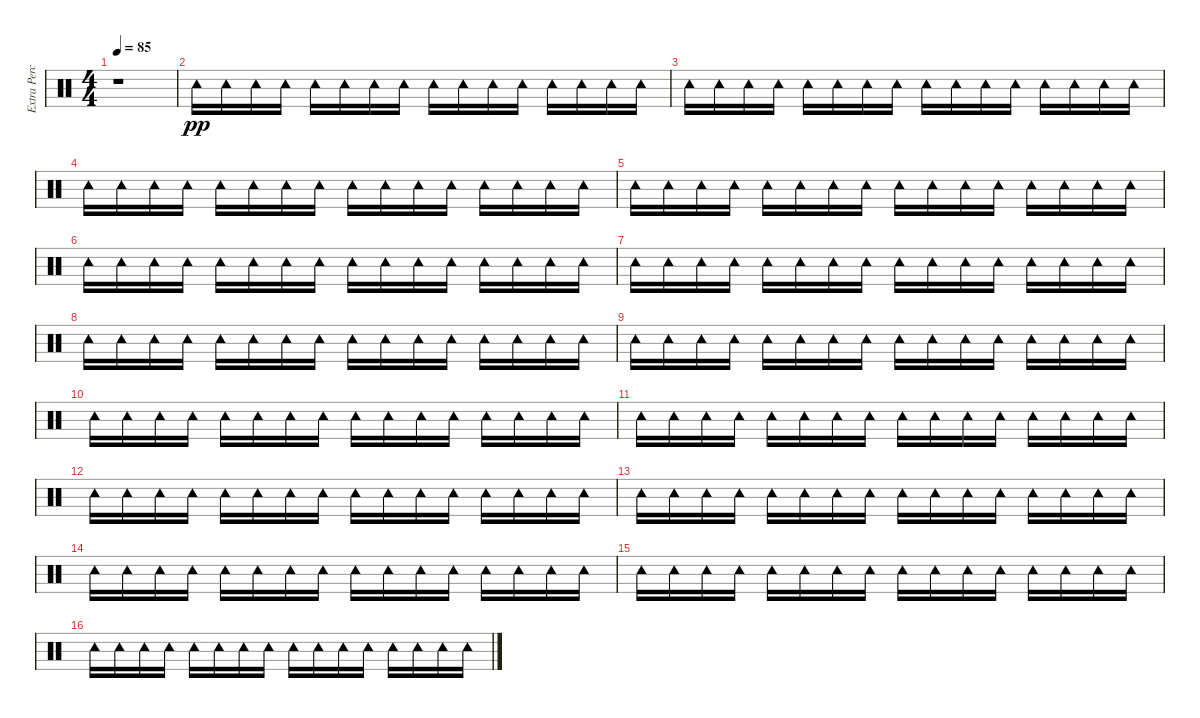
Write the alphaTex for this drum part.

\track ("Extra Percussion" "Extra Perc") {instrument percussion}
\staff {score}
\articulation defaults
\ts (4 4)
\tempo 85
\clef neutral
\ks c
r.1{dy pp} |
"Tambourine (hit)".16 "Tambourine (hit)".16 "Tambourine (hit)".16 "Tambourine (hit)".16 "Tambourine (hit)".16 "Tambourine (hit)".16 "Tambourine (hit)".16 "Tambourine (hit)".16 "Tambourine (hit)".16 "Tambourine (hit)".16 "Tambourine (hit)".16 "Tambourine (hit)".16 "Tambourine (hit)".16 "Tambourine (hit)".16 "Tambourine (hit)".16 "Tambourine (hit)".16 |
"Tambourine (hit)".16 "Tambourine (hit)".16 "Tambourine (hit)".16 "Tambourine (hit)".16 "Tambourine (hit)".16 "Tambourine (hit)".16 "Tambourine (hit)".16 "Tambourine (hit)".16 "Tambourine (hit)".16 "Tambourine (hit)".16 "Tambourine (hit)".16 "Tambourine (hit)".16 "Tambourine (hit)".16 "Tambourine (hit)".16 "Tambourine (hit)".16 "Tambourine (hit)".16 |
"Tambourine (hit)".16 "Tambourine (hit)".16 "Tambourine (hit)".16 "Tambourine (hit)".16 "Tambourine (hit)".16 "Tambourine (hit)".16 "Tambourine (hit)".16 "Tambourine (hit)".16 "Tambourine (hit)".16 "Tambourine (hit)".16 "Tambourine (hit)".16 "Tambourine (hit)".16 "Tambourine (hit)".16 "Tambourine (hit)".16 "Tambourine (hit)".16 "Tambourine (hit)".16 |
"Tambourine (hit)".16 "Tambourine (hit)".16 "Tambourine (hit)".16 "Tambourine (hit)".16 "Tambourine (hit)".16 "Tambourine (hit)".16 "Tambourine (hit)".16 "Tambourine (hit)".16 "Tambourine (hit)".16 "Tambourine (hit)".16 "Tambourine (hit)".16 "Tambourine (hit)".16 "Tambourine (hit)".16 "Tambourine (hit)".16 "Tambourine (hit)".16 "Tambourine (hit)".16 |
"Tambourine (hit)".16 "Tambourine (hit)".16 "Tambourine (hit)".16 "Tambourine (hit)".16 "Tambourine (hit)".16 "Tambourine (hit)".16 "Tambourine (hit)".16 "Tambourine (hit)".16 "Tambourine (hit)".16 "Tambourine (hit)".16 "Tambourine (hit)".16 "Tambourine (hit)".16 "Tambourine (hit)".16 "Tambourine (hit)".16 "Tambourine (hit)".16 "Tambourine (hit)".16 |
"Tambourine (hit)".16 "Tambourine (hit)".16 "Tambourine (hit)".16 "Tambourine (hit)".16 "Tambourine (hit)".16 "Tambourine (hit)".16 "Tambourine (hit)".16 "Tambourine (hit)".16 "Tambourine (hit)".16 "Tambourine (hit)".16 "Tambourine (hit)".16 "Tambourine (hit)".16 "Tambourine (hit)".16 "Tambourine (hit)".16 "Tambourine (hit)".16 "Tambourine (hit)".16 |
"Tambourine (hit)".16 "Tambourine (hit)".16 "Tambourine (hit)".16 "Tambourine (hit)".16 "Tambourine (hit)".16 "Tambourine (hit)".16 "Tambourine (hit)".16 "Tambourine (hit)".16 "Tambourine (hit)".16 "Tambourine (hit)".16 "Tambourine (hit)".16 "Tambourine (hit)".16 "Tambourine (hit)".16 "Tambourine (hit)".16 "Tambourine (hit)".16 "Tambourine (hit)".16 |
"Tambourine (hit)".16 "Tambourine (hit)".16 "Tambourine (hit)".16 "Tambourine (hit)".16 "Tambourine (hit)".16 "Tambourine (hit)".16 "Tambourine (hit)".16 "Tambourine (hit)".16 "Tambourine (hit)".16 "Tambourine (hit)".16 "Tambourine (hit)".16 "Tambourine (hit)".16 "Tambourine (hit)".16 "Tambourine (hit)".16 "Tambourine (hit)".16 "Tambourine (hit)".16 |
"Tambourine (hit)".16 "Tambourine (hit)".16 "Tambourine (hit)".16 "Tambourine (hit)".16 "Tambourine (hit)".16 "Tambourine (hit)".16 "Tambourine (hit)".16 "Tambourine (hit)".16 "Tambourine (hit)".16 "Tambourine (hit)".16 "Tambourine (hit)".16 "Tambourine (hit)".16 "Tambourine (hit)".16 "Tambourine (hit)".16 "Tambourine (hit)".16 "Tambourine (hit)".16 |
"Tambourine (hit)".16 "Tambourine (hit)".16 "Tambourine (hit)".16 "Tambourine (hit)".16 "Tambourine (hit)".16 "Tambourine (hit)".16 "Tambourine (hit)".16 "Tambourine (hit)".16 "Tambourine (hit)".16 "Tambourine (hit)".16 "Tambourine (hit)".16 "Tambourine (hit)".16 "Tambourine (hit)".16 "Tambourine (hit)".16 "Tambourine (hit)".16 "Tambourine (hit)".16 |
"Tambourine (hit)".16 "Tambourine (hit)".16 "Tambourine (hit)".16 "Tambourine (hit)".16 "Tambourine (hit)".16 "Tambourine (hit)".16 "Tambourine (hit)".16 "Tambourine (hit)".16 "Tambourine (hit)".16 "Tambourine (hit)".16 "Tambourine (hit)".16 "Tambourine (hit)".16 "Tambourine (hit)".16 "Tambourine (hit)".16 "Tambourine (hit)".16 "Tambourine (hit)".16 |
"Tambourine (hit)".16 "Tambourine (hit)".16 "Tambourine (hit)".16 "Tambourine (hit)".16 "Tambourine (hit)".16 "Tambourine (hit)".16 "Tambourine (hit)".16 "Tambourine (hit)".16 "Tambourine (hit)".16 "Tambourine (hit)".16 "Tambourine (hit)".16 "Tambourine (hit)".16 "Tambourine (hit)".16 "Tambourine (hit)".16 "Tambourine (hit)".16 "Tambourine (hit)".16 |
"Tambourine (hit)".16 "Tambourine (hit)".16 "Tambourine (hit)".16 "Tambourine (hit)".16 "Tambourine (hit)".16 "Tambourine (hit)".16 "Tambourine (hit)".16 "Tambourine (hit)".16 "Tambourine (hit)".16 "Tambourine (hit)".16 "Tambourine (hit)".16 "Tambourine (hit)".16 "Tambourine (hit)".16 "Tambourine (hit)".16 "Tambourine (hit)".16 "Tambourine (hit)".16 |
"Tambourine (hit)".16 "Tambourine (hit)".16 "Tambourine (hit)".16 "Tambourine (hit)".16 "Tambourine (hit)".16 "Tambourine (hit)".16 "Tambourine (hit)".16 "Tambourine (hit)".16 "Tambourine (hit)".16 "Tambourine (hit)".16 "Tambourine (hit)".16 "Tambourine (hit)".16 "Tambourine (hit)".16 "Tambourine (hit)".16 "Tambourine (hit)".16 "Tambourine (hit)".16 |
"Tambourine (hit)".16 "Tambourine (hit)".16 "Tambourine (hit)".16 "Tambourine (hit)".16 "Tambourine (hit)".16 "Tambourine (hit)".16 "Tambourine (hit)".16 "Tambourine (hit)".16 "Tambourine (hit)".16 "Tambourine (hit)".16 "Tambourine (hit)".16 "Tambourine (hit)".16 "Tambourine (hit)".16 "Tambourine (hit)".16 "Tambourine (hit)".16 "Tambourine (hit)".16
